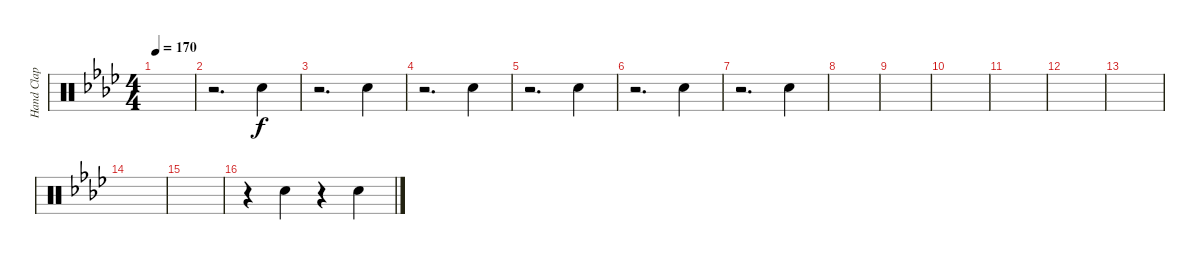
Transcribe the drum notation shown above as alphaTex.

\track ("Hand Clap" "Hand Clap") {instrument percussion}
\staff {score}
\articulation defaults
\ts (4 4)
\tempo 170
\clef neutral
\ks ab
|
r.2{d} "Hand Clap (hit)".4 |
r.2{d} "Hand Clap (hit)".4 |
r.2{d} "Hand Clap (hit)".4 |
r.2{d} "Hand Clap (hit)".4 |
r.2{d} "Hand Clap (hit)".4 |
r.2{d} "Hand Clap (hit)".4 |
|
|
|
|
|
|
|
|
r.4 "Hand Clap (hit)".4 r.4 "Hand Clap (hit)".4
